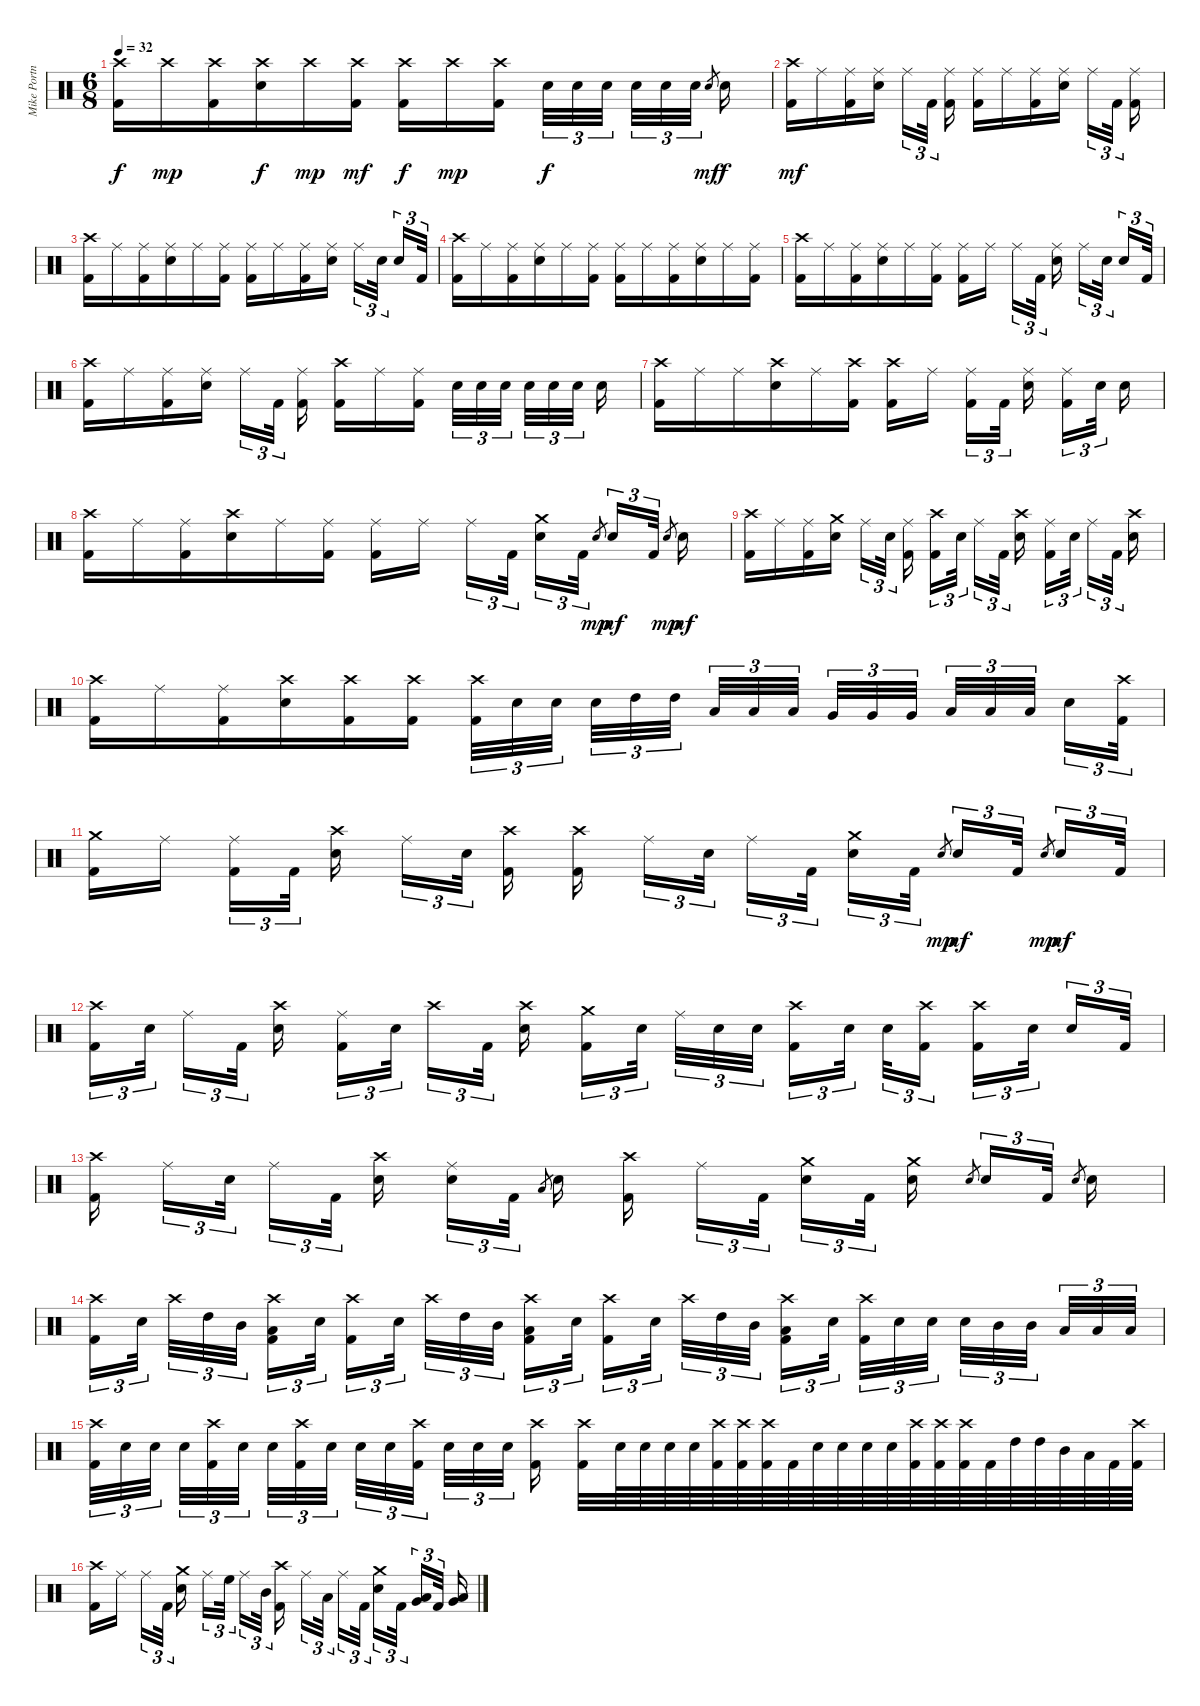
\track ("Mike Portnoy" "Mike Portn") {instrument percussion}
\staff {score}
\articulation defaults
\ts (6 8)
\tempo 32
\clef neutral
\ks c
("Crash high (hit)" "Kick (hit) 2").16{dy f} "Crash high (hit)".16{dy mp} ("Crash high (hit)" "Kick (hit) 2").16 ("Crash high (hit)" "Snare (hit) 2").16{dy f} "Crash high (hit)".16{dy mp} ("Crash high (hit)" "Kick (hit) 2").16{dy mf} ("Crash high (hit)" "Kick (hit) 2").16{dy f} "Crash high (hit)".16{dy mp} ("Crash high (hit)" "Kick (hit) 2").16{beam splitsecondary} "Snare (hit) 2".32{tu (3 2) dy f} "Snare (hit) 2".32{tu (3 2)} "Snare (hit) 2".32{tu (3 2) beam splitsecondary} "Snare (hit) 2".32{tu (3 2)} "Snare (hit) 2".32{tu (3 2)} "Snare (hit) 2".32{tu (3 2)} "Snare (hit) 2".8{gr dy mf beam splitsecondary} "Snare (hit) 2".16{dy f} |
("Crash high (hit)" "Kick (hit) 2").16{dy mf} "Ride (middle)".16 ("Ride (middle)" "Kick (hit) 2").16 ("Ride (middle)" "Snare (hit) 2").16{beam splitsecondary} "Ride (middle)".16{tu (3 2)} "Kick (hit) 2".32{tu (3 2) beam splitsecondary} ("Ride (middle)" "Kick (hit) 2").16 ("Ride (middle)" "Kick (hit) 2").16 "Ride (middle)".16 ("Ride (middle)" "Kick (hit) 2").16 ("Ride (middle)" "Snare (hit) 2").16{beam splitsecondary} "Ride (middle)".16{tu (3 2)} "Kick (hit) 2".32{tu (3 2) beam splitsecondary} ("Ride (middle)" "Kick (hit) 2").16 |
("Crash high (hit)" "Kick (hit) 2").16 "Ride (middle)".16 ("Ride (middle)" "Kick (hit) 2").16 ("Ride (middle)" "Snare (hit) 2").16 "Ride (middle)".16 ("Ride (middle)" "Kick (hit) 2").16 ("Ride (middle)" "Kick (hit) 2").16 "Ride (middle)".16 ("Ride (middle)" "Kick (hit) 2").16 ("Ride (middle)" "Snare (hit) 2").16{beam splitsecondary} "Ride (middle)".16{tu (3 2)} "Snare (hit) 2".32{tu (3 2) beam splitsecondary} "Snare (hit) 2".16{tu (3 2)} "Kick (hit) 2".32{tu (3 2)} |
("Crash high (hit)" "Kick (hit) 2").16 "Ride (middle)".16 ("Ride (middle)" "Kick (hit) 2").16 ("Ride (middle)" "Snare (hit) 2").16 "Ride (middle)".16 ("Ride (middle)" "Kick (hit) 2").16 ("Ride (middle)" "Kick (hit) 2").16 "Ride (middle)".16 ("Ride (middle)" "Kick (hit) 2").16 ("Ride (middle)" "Snare (hit) 2").16 "Ride (middle)".16 ("Ride (middle)" "Kick (hit) 2").16 |
("Crash high (hit)" "Kick (hit) 2").16 "Ride (middle)".16 ("Ride (middle)" "Kick (hit) 2").16 ("Ride (middle)" "Snare (hit) 2").16 "Ride (middle)".16 ("Ride (middle)" "Kick (hit) 2").16 ("Ride (middle)" "Kick (hit) 2").16 "Ride (middle)".16{beam splitsecondary} "Ride (middle)".16{tu (3 2)} "Kick (hit) 2".32{tu (3 2) beam splitsecondary} ("Ride (middle)" "Snare (hit) 2").16{beam splitsecondary} "Ride (middle)".16{tu (3 2)} "Snare (hit) 2".32{tu (3 2) beam splitsecondary} "Snare (hit) 2".16{tu (3 2)} "Kick (hit) 2".32{tu (3 2)} |
("Crash high (hit)" "Kick (hit) 2").16 "Ride (middle)".16 ("Ride (middle)" "Kick (hit) 2").16 ("Ride (middle)" "Snare (hit) 2").16{beam splitsecondary} "Ride (middle)".16{tu (3 2)} "Kick (hit) 2".32{tu (3 2) beam splitsecondary} ("Ride (middle)" "Kick (hit) 2").16 ("Crash high (hit)" "Kick (hit) 2").16 "Ride (middle)".16 ("Ride (middle)" "Kick (hit) 2").16{beam splitsecondary} "Snare (hit) 2".32{tu (3 2)} "Snare (hit) 2".32{tu (3 2)} "Snare (hit) 2".32{tu (3 2) beam splitsecondary} "Snare (hit) 2".32{tu (3 2)} "Snare (hit) 2".32{tu (3 2)} "Snare (hit) 2".32{tu (3 2) beam splitsecondary} "Snare (hit) 2".16 |
("Crash high (hit)" "Kick (hit) 2").16 "Ride (middle)".16 "Ride (middle)".16 ("Crash high (hit)" "Snare (hit) 2").16 "Ride (middle)".16 ("Crash high (hit)" "Kick (hit) 2").16 ("Crash high (hit)" "Kick (hit) 2").16 "Ride (middle)".16{beam splitsecondary} ("Ride (middle)" "Kick (hit) 2").16{tu (3 2)} "Kick (hit) 2".32{tu (3 2) beam splitsecondary} ("Ride (middle)" "Snare (hit) 2").16{beam splitsecondary} ("Ride (middle)" "Kick (hit) 2").16{tu (3 2)} "Snare (hit) 2".32{tu (3 2) beam splitsecondary} "Snare (hit) 2".16 |
("Crash high (hit)" "Kick (hit) 2").16 "Ride (middle)".16 ("Ride (middle)" "Kick (hit) 2").16 ("Crash high (hit)" "Snare (hit) 2").16 "Ride (middle)".16 ("Ride (middle)" "Kick (hit) 2").16 ("Ride (middle)" "Kick (hit) 2").16 "Ride (middle)".16{beam splitsecondary} "Ride (middle)".16{tu (3 2)} "Kick (hit) 2".32{tu (3 2) beam splitsecondary} ("Crash medium (hit)" "Snare (hit) 2").16{tu (3 2)} "Kick (hit) 2".32{tu (3 2)} "Snare (hit) 2".8{gr dy mp beam splitsecondary} "Snare (hit) 2".16{tu (3 2) dy mf} "Kick (hit) 2".32{tu (3 2)} "Snare (hit) 2".8{gr dy mp beam splitsecondary} "Snare (hit) 2".16{dy mf} |
("Crash high (hit)" "Kick (hit) 2").16 "Ride (middle)".16 ("Ride (middle)" "Kick (hit) 2").16 ("Crash medium (hit)" "Snare (hit) 2").16{beam splitsecondary} "Ride (middle)".16{tu (3 2)} "Snare (hit) 2".32{tu (3 2) beam splitsecondary} ("Ride (middle)" "Kick (hit) 2").16 ("Crash high (hit)" "Kick (hit) 2").16{tu (3 2)} "Snare (hit) 2".32{tu (3 2) beam splitsecondary} "Ride (middle)".16{tu (3 2)} "Kick (hit) 2".32{tu (3 2) beam splitsecondary} ("Crash high (hit)" "Snare (hit) 2").16{beam splitsecondary} ("Ride (middle)" "Kick (hit) 2").16{tu (3 2)} "Snare (hit) 2".32{tu (3 2) beam splitsecondary} "Ride (middle)".16{tu (3 2)} "Kick (hit) 2".32{tu (3 2) beam splitsecondary} ("Crash high (hit)" "Snare (hit) 2").16 |
("Crash high (hit)" "Kick (hit) 2").16 "Ride (middle)".16 ("Ride (middle)" "Kick (hit) 2").16 ("Crash high (hit)" "Snare (hit) 2").16 ("Crash high (hit)" "Kick (hit) 2").16 ("Crash high (hit)" "Kick (hit) 2").16 ("Crash high (hit)" "Kick (hit) 2").32{tu (3 2)} "Snare (hit) 2".32{tu (3 2)} "Snare (hit) 2".32{tu (3 2) beam splitsecondary} "Snare (hit) 2".32{tu (3 2)} "High Tom (hit)".32{tu (3 2)} "High Tom (hit)".32{tu (3 2) beam splitsecondary} "Low Tom (hit)".32{tu (3 2)} "Low Tom (hit)".32{tu (3 2)} "Low Tom (hit)".32{tu (3 2) beam splitsecondary} "Very Low Tom (hit)".32{tu (3 2)} "Very Low Tom (hit)".32{tu (3 2)} "Very Low Tom (hit)".32{tu (3 2) beam splitsecondary} "Low Floor Tom (hit)".32{tu (3 2)} "Low Floor Tom (hit)".32{tu (3 2)} "Low Floor Tom (hit)".32{tu (3 2) beam splitsecondary} "Snare (hit) 2".16{tu (3 2)} ("Crash high (hit)" "Kick (hit) 2").32{tu (3 2)} |
("Crash medium (hit)" "Kick (hit) 2").16 "Ride (middle)".16{beam splitsecondary} ("Ride (middle)" "Kick (hit) 2").16{tu (3 2)} "Kick (hit) 2".32{tu (3 2) beam splitsecondary} ("Crash high (hit)" "Snare (hit) 2").16{beam splitsecondary} "Ride (middle)".16{tu (3 2)} "Snare (hit) 2".32{tu (3 2) beam splitsecondary} ("Crash high (hit)" "Kick (hit) 2").16 ("Crash high (hit)" "Kick (hit) 2").16{beam splitsecondary} "Ride (middle)".16{tu (3 2)} "Snare (hit) 2".32{tu (3 2) beam splitsecondary} "Ride (middle)".16{tu (3 2)} "Kick (hit) 2".32{tu (3 2) beam splitsecondary} ("Crash medium (hit)" "Snare (hit) 2").16{tu (3 2)} "Kick (hit) 2".32{tu (3 2)} "Snare (hit) 2".8{gr dy mp beam splitsecondary} "Snare (hit) 2".16{tu (3 2) dy mf} "Kick (hit) 2".32{tu (3 2)} "Snare (hit) 2".8{gr dy mp beam splitsecondary} "Snare (hit) 2".16{tu (3 2) dy mf} "Kick (hit) 2".32{tu (3 2)} |
("Crash high (hit)" "Kick (hit) 2").16{tu (3 2)} "Snare (hit) 2".32{tu (3 2) beam splitsecondary} "Ride (middle)".16{tu (3 2)} "Kick (hit) 2".32{tu (3 2) beam splitsecondary} ("Crash high (hit)" "Snare (hit) 2").16{beam splitsecondary} ("Ride (middle)" "Kick (hit) 2").16{tu (3 2)} "Snare (hit) 2".32{tu (3 2) beam splitsecondary} "Crash high (hit)".16{tu (3 2)} "Kick (hit) 2".32{tu (3 2) beam splitsecondary} ("Crash high (hit)" "Snare (hit) 2").16 ("Crash medium (hit)" "Kick (hit) 2").16{tu (3 2)} "Snare (hit) 2".32{tu (3 2) beam splitsecondary} "Ride (middle)".32{tu (3 2)} "Snare (hit) 2".32{tu (3 2)} "Snare (hit) 2".32{tu (3 2) beam splitsecondary} ("Crash high (hit)" "Kick (hit) 2").16{tu (3 2)} "Snare (hit) 2".32{tu (3 2) beam splitsecondary} "Snare (hit) 2".32{tu (3 2)} ("Crash high (hit)" "Kick (hit) 2").16{tu (3 2) beam splitsecondary} ("Crash high (hit)" "Kick (hit) 2").16{tu (3 2)} "Snare (hit) 2".32{tu (3 2) beam splitsecondary} "Snare (hit) 2".16{tu (3 2)} "Kick (hit) 2".32{tu (3 2)} |
("Crash high (hit)" "Kick (hit) 2").16{beam splitsecondary} "Ride (middle)".16{tu (3 2)} "Snare (hit) 2".32{tu (3 2) beam splitsecondary} "Ride (middle)".16{tu (3 2)} "Kick (hit) 2".32{tu (3 2) beam splitsecondary} ("Crash high (hit)" "Snare (hit) 2").16{beam splitsecondary} ("Ride (middle)" "Snare (hit) 2").16{tu (3 2)} "Kick (hit) 2".32{tu (3 2)} "Low Tom (hit)".8{gr beam splitsecondary} "Snare (hit) 2".16 ("Crash high (hit)" "Kick (hit) 2").16{beam splitsecondary} "Ride (middle)".16{tu (3 2)} "Kick (hit) 2".32{tu (3 2) beam splitsecondary} ("Crash medium (hit)" "Snare (hit) 2").16{tu (3 2)} "Kick (hit) 2".32{tu (3 2) beam splitsecondary} ("Crash medium (hit)" "Snare (hit) 2").16 "Snare (hit) 2".8{gr beam splitsecondary} "Snare (hit) 2".16{tu (3 2)} "Kick (hit) 2".32{tu (3 2)} "Snare (hit) 2".8{gr beam splitsecondary} "Snare (hit) 2".16 |
("Crash high (hit)" "Kick (hit) 2").16{tu (3 2)} "Snare (hit) 2".32{tu (3 2) beam splitsecondary} "Crash high (hit)".32{tu (3 2)} "High Tom (hit)".32{tu (3 2)} "Mid Tom (hit)".32{tu (3 2) beam splitsecondary} ("Crash high (hit)" "Low Tom (hit)" "Kick (hit) 2").16{tu (3 2)} "Snare (hit) 2".32{tu (3 2) beam splitsecondary} ("Crash high (hit)" "Kick (hit) 2").16{tu (3 2)} "Snare (hit) 2".32{tu (3 2) beam splitsecondary} "Crash high (hit)".32{tu (3 2)} "High Tom (hit)".32{tu (3 2)} "Mid Tom (hit)".32{tu (3 2) beam splitsecondary} ("Crash high (hit)" "Low Tom (hit)" "Kick (hit) 2").16{tu (3 2)} "Snare (hit) 2".32{tu (3 2)} ("Crash high (hit)" "Kick (hit) 2").16{tu (3 2)} "Snare (hit) 2".32{tu (3 2) beam splitsecondary} "Crash high (hit)".32{tu (3 2)} "High Tom (hit)".32{tu (3 2)} "Mid Tom (hit)".32{tu (3 2) beam splitsecondary} ("Crash high (hit)" "Low Tom (hit)" "Kick (hit) 2").16{tu (3 2)} "Snare (hit) 2".32{tu (3 2) beam splitsecondary} ("Crash high (hit)" "Kick (hit) 2").32{tu (3 2)} "Snare (hit) 2".32{tu (3 2)} "Snare (hit) 2".32{tu (3 2) beam splitsecondary} "Snare (hit) 2".32{tu (3 2)} "Mid Tom (hit)".32{tu (3 2)} "Mid Tom (hit)".32{tu (3 2) beam splitsecondary} "Low Tom (hit)".32{tu (3 2)} "Low Tom (hit)".32{tu (3 2)} "Low Tom (hit)".32{tu (3 2)} |
("Crash high (hit)" "Kick (hit) 2").32{tu (3 2)} "Snare (hit) 2".32{tu (3 2)} "Snare (hit) 2".32{tu (3 2) beam splitsecondary} "Snare (hit) 2".32{tu (3 2)} ("Crash high (hit)" "Kick (hit) 2").32{tu (3 2)} "Snare (hit) 2".32{tu (3 2) beam splitsecondary} "Snare (hit) 2".32{tu (3 2)} ("Crash high (hit)" "Kick (hit) 2").32{tu (3 2)} "Snare (hit) 2".32{tu (3 2) beam splitsecondary} "Snare (hit) 2".32{tu (3 2)} "Snare (hit) 2".32{tu (3 2)} ("Crash high (hit)" "Kick (hit) 2").32{tu (3 2) beam splitsecondary} "Snare (hit) 2".32{tu (3 2)} "Snare (hit) 2".32{tu (3 2)} "Snare (hit) 2".32{tu (3 2) beam splitsecondary} ("Crash high (hit)" "Kick (hit) 2").16 ("Crash high (hit)" "Kick (hit) 2").32 "Snare (hit) 2".64 "Snare (hit) 2".64 "Snare (hit) 2".64 "Snare (hit) 2".64 ("Crash high (hit)" "Kick (hit) 2").64 ("Crash high (hit)" "Kick (hit) 2").64 ("Crash high (hit)" "Kick (hit) 2").64 "Kick (hit) 2".64 "Snare (hit) 2".64 "Snare (hit) 2".64 "Snare (hit) 2".64 "Snare (hit) 2".64 ("Crash high (hit)" "Kick (hit) 2").64 ("Crash high (hit)" "Kick (hit) 2").64 ("Crash high (hit)" "Kick (hit) 2").64 "Kick (hit) 2".64 "High Tom (hit)".64 "High Tom (hit)".64 "Mid Tom (hit)".64 "Low Tom (hit)".64 "Kick (hit) 2".64 ("Crash high (hit)" "Kick (hit) 2").64 |
("Crash high (hit)" "Kick (hit) 2").16 "Ride (middle)".16{beam splitsecondary} "Ride (middle)".16{tu (3 2)} "Kick (hit) 2".32{tu (3 2) beam splitsecondary} ("Crash medium (hit)" "Snare (hit) 2").16{beam splitsecondary} "Ride (middle)".16{tu (3 2)} "High Floor Tom (hit)".32{tu (3 2) beam splitsecondary} "Ride (middle)".16{tu (3 2)} "Mid Tom (hit)".32{tu (3 2)} ("Crash high (hit)" "Kick (hit) 2").16{beam splitsecondary} "Ride (middle)".16{tu (3 2)} "Low Tom (hit)".32{tu (3 2) beam splitsecondary} "Ride (middle)".16{tu (3 2)} "Kick (hit) 2".32{tu (3 2) beam splitsecondary} ("Crash medium (hit)" "Snare (hit) 2").16{tu (3 2)} "Kick (hit) 2".32{tu (3 2) beam splitsecondary} ("Low Tom (hit)" "Very Low Tom (hit)").16{tu (3 2)} "Kick (hit) 2".32{tu (3 2) beam splitsecondary} ("Low Tom (hit)" "Very Low Tom (hit)").16
